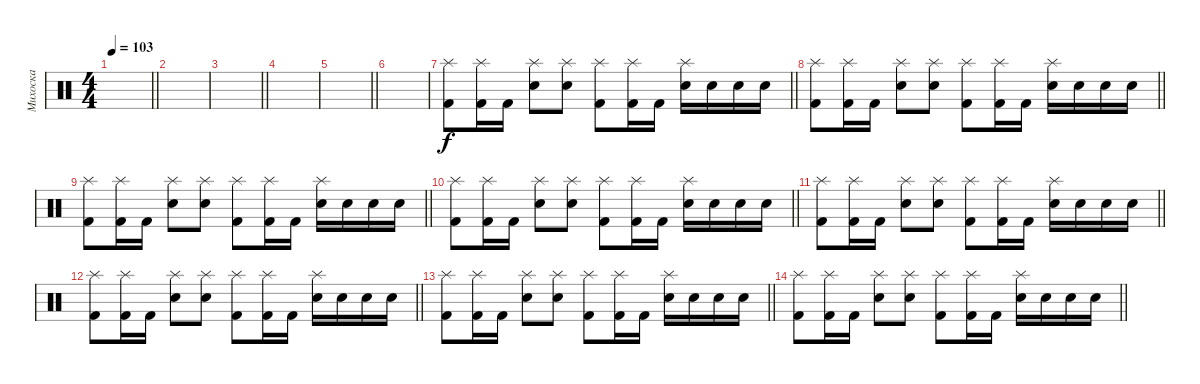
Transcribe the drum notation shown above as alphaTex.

\track ("Михоска" "Михоска") {instrument percussion}
\staff {score}
\articulation defaults
\ts (4 4)
\tempo 103
\clef neutral
\barLineRight lightlight
\ks c
|
|
\barLineRight lightlight
|
|
\barLineRight lightlight
|
|
\barLineRight lightlight
("Splash (hit)" "Kick (hit) 2").8 ("Splash (hit)" "Kick (hit) 2").16 "Kick (hit) 2".16 ("Splash (hit)" "Snare (hit) 2").8 ("Splash (hit)" "Snare (hit) 2").8 ("Splash (hit)" "Kick (hit) 2").8 ("Splash (hit)" "Kick (hit) 2").16 "Kick (hit) 2".16 ("Splash (hit)" "Snare (hit) 2").16 "Snare (hit) 2".16 "Snare (hit) 2".16 "Snare (hit) 2".16 |
\barLineRight lightlight
("Splash (hit)" "Kick (hit) 2").8 ("Splash (hit)" "Kick (hit) 2").16 "Kick (hit) 2".16 ("Splash (hit)" "Snare (hit) 2").8 ("Splash (hit)" "Snare (hit) 2").8 ("Splash (hit)" "Kick (hit) 2").8 ("Splash (hit)" "Kick (hit) 2").16 "Kick (hit) 2".16 ("Splash (hit)" "Snare (hit) 2").16 "Snare (hit) 2".16 "Snare (hit) 2".16 "Snare (hit) 2".16 |
\barLineRight lightlight
("Splash (hit)" "Kick (hit) 2").8 ("Splash (hit)" "Kick (hit) 2").16 "Kick (hit) 2".16 ("Splash (hit)" "Snare (hit) 2").8 ("Splash (hit)" "Snare (hit) 2").8 ("Splash (hit)" "Kick (hit) 2").8 ("Splash (hit)" "Kick (hit) 2").16 "Kick (hit) 2".16 ("Splash (hit)" "Snare (hit) 2").16 "Snare (hit) 2".16 "Snare (hit) 2".16 "Snare (hit) 2".16 |
\barLineRight lightlight
("Splash (hit)" "Kick (hit) 2").8 ("Splash (hit)" "Kick (hit) 2").16 "Kick (hit) 2".16 ("Splash (hit)" "Snare (hit) 2").8 ("Splash (hit)" "Snare (hit) 2").8 ("Splash (hit)" "Kick (hit) 2").8 ("Splash (hit)" "Kick (hit) 2").16 "Kick (hit) 2".16 ("Splash (hit)" "Snare (hit) 2").16 "Snare (hit) 2".16 "Snare (hit) 2".16 "Snare (hit) 2".16 |
\barLineRight lightlight
("Splash (hit)" "Kick (hit) 2").8 ("Splash (hit)" "Kick (hit) 2").16 "Kick (hit) 2".16 ("Splash (hit)" "Snare (hit) 2").8 ("Splash (hit)" "Snare (hit) 2").8 ("Splash (hit)" "Kick (hit) 2").8 ("Splash (hit)" "Kick (hit) 2").16 "Kick (hit) 2".16 ("Splash (hit)" "Snare (hit) 2").16 "Snare (hit) 2".16 "Snare (hit) 2".16 "Snare (hit) 2".16 |
\barLineRight lightlight
("Splash (hit)" "Kick (hit) 2").8 ("Splash (hit)" "Kick (hit) 2").16 "Kick (hit) 2".16 ("Splash (hit)" "Snare (hit) 2").8 ("Splash (hit)" "Snare (hit) 2").8 ("Splash (hit)" "Kick (hit) 2").8 ("Splash (hit)" "Kick (hit) 2").16 "Kick (hit) 2".16 ("Splash (hit)" "Snare (hit) 2").16 "Snare (hit) 2".16 "Snare (hit) 2".16 "Snare (hit) 2".16 |
\barLineRight lightlight
("Splash (hit)" "Kick (hit) 2").8 ("Splash (hit)" "Kick (hit) 2").16 "Kick (hit) 2".16 ("Splash (hit)" "Snare (hit) 2").8 ("Splash (hit)" "Snare (hit) 2").8 ("Splash (hit)" "Kick (hit) 2").8 ("Splash (hit)" "Kick (hit) 2").16 "Kick (hit) 2".16 ("Splash (hit)" "Snare (hit) 2").16 "Snare (hit) 2".16 "Snare (hit) 2".16 "Snare (hit) 2".16 |
\barLineRight lightlight
("Splash (hit)" "Kick (hit) 2").8 ("Splash (hit)" "Kick (hit) 2").16 "Kick (hit) 2".16 ("Splash (hit)" "Snare (hit) 2").8 ("Splash (hit)" "Snare (hit) 2").8 ("Splash (hit)" "Kick (hit) 2").8 ("Splash (hit)" "Kick (hit) 2").16 "Kick (hit) 2".16 ("Splash (hit)" "Snare (hit) 2").16 "Snare (hit) 2".16 "Snare (hit) 2".16 "Snare (hit) 2".16
